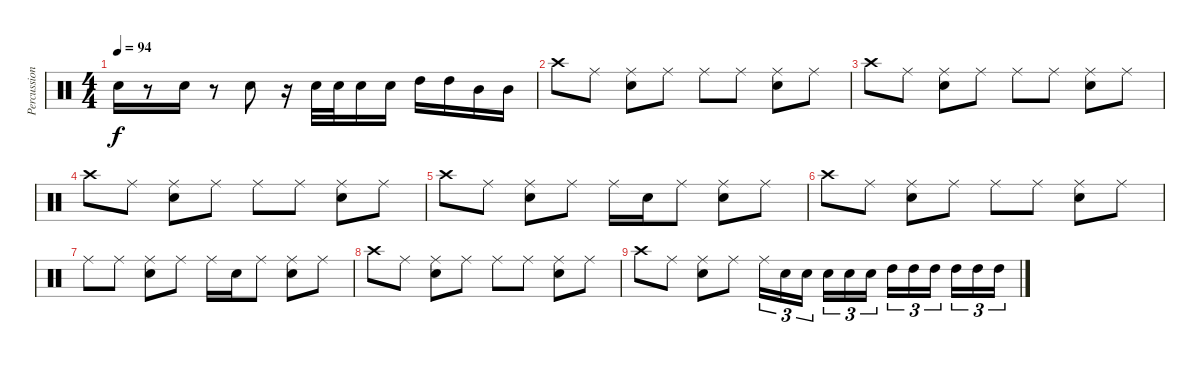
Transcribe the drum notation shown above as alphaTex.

\track ("Percussion" "Percussion") {instrument percussion}
\staff {score}
\articulation defaults
\ts (4 4)
\tempo 94
\clef neutral
\ks c "Snare (hit) 2".16{dy f}
r.8 "Snare (hit) 2".16 r.8 "Snare (hit) 2".8 r.16 "Snare (hit) 2".32 "Snare (hit) 2".32 "Snare (hit) 2".16 "Snare (hit) 2".16 "High Tom (hit)".16 "High Tom (hit)".16 "Mid Tom (hit)".16 "Mid Tom (hit)".16 |
"Crash high (hit)".8 "Ride (middle)".8 ("Ride (middle)" "Snare (hit) 2").8 "Ride (middle)".8 "Ride (middle)".8 "Ride (middle)".8 ("Ride (middle)" "Snare (hit) 2").8 "Ride (middle)".8 |
"Crash high (hit)".8 "Ride (middle)".8 ("Ride (middle)" "Snare (hit) 2").8 "Ride (middle)".8 "Ride (middle)".8 "Ride (middle)".8 ("Ride (middle)" "Snare (hit) 2").8 "Ride (middle)".8 |
"Crash high (hit)".8 "Ride (middle)".8 ("Ride (middle)" "Snare (hit) 2").8 "Ride (middle)".8 "Ride (middle)".8 "Ride (middle)".8 ("Ride (middle)" "Snare (hit) 2").8 "Ride (middle)".8 |
"Crash high (hit)".8 "Ride (middle)".8 ("Ride (middle)" "Snare (hit) 2").8 "Ride (middle)".8 "Ride (middle)".16 "Snare (hit) 2".16 "Ride (middle)".8 ("Ride (middle)" "Snare (hit) 2").8 "Ride (middle)".8 |
"Crash high (hit)".8 "Ride (middle)".8 ("Ride (middle)" "Snare (hit) 2").8 "Ride (middle)".8 "Ride (middle)".8 "Ride (middle)".8 ("Ride (middle)" "Snare (hit) 2").8 "Ride (middle)".8 |
"Ride (middle)".8 "Ride (middle)".8 ("Ride (middle)" "Snare (hit) 2").8 "Ride (middle)".8 "Ride (middle)".16 "Snare (hit) 2".16 "Ride (middle)".8 ("Ride (middle)" "Snare (hit) 2").8 "Ride (middle)".8 |
"Crash high (hit)".8 "Ride (middle)".8 ("Ride (middle)" "Snare (hit) 2").8 "Ride (middle)".8 "Ride (middle)".8 "Ride (middle)".8 ("Ride (middle)" "Snare (hit) 2").8 "Ride (middle)".8 |
"Crash high (hit)".8 "Ride (middle)".8 ("Ride (middle)" "Snare (hit) 2").8 "Ride (middle)".8 "Ride (middle)".16{tu (3 2)} "Snare (hit) 2".16{tu (3 2)} "Snare (hit) 2".16{tu (3 2)} "Snare (hit) 2".16{tu (3 2)} "Snare (hit) 2".16{tu (3 2)} "Snare (hit) 2".16{tu (3 2)} "High Tom (hit)".16{tu (3 2)} "High Tom (hit)".16{tu (3 2)} "High Tom (hit)".16{tu (3 2)} "High Tom (hit)".16{tu (3 2)} "High Tom (hit)".16{tu (3 2)} "High Tom (hit)".16{tu (3 2)}
